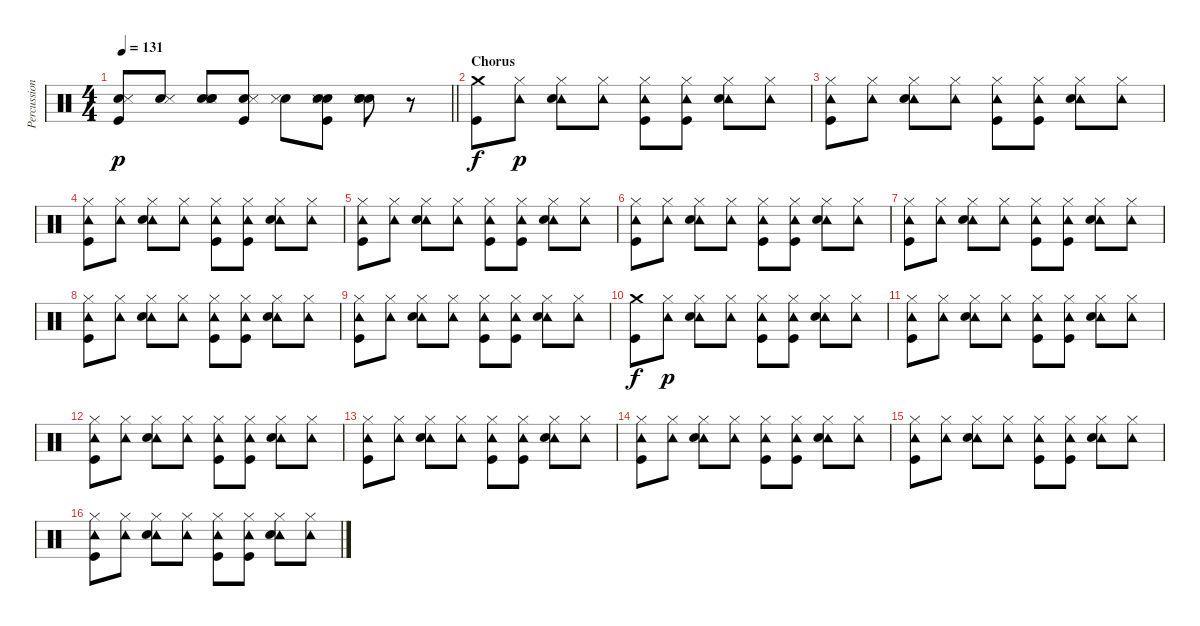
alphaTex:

\track ("Percussion" "Percussion") {instrument percussion}
\staff {score}
\articulation defaults
\ts (4 4)
\tempo 131
\clef neutral
\barLineRight lightlight
\ks c
("Hand Clap (hit)" "Snare (side stick) 3" "Kick (hit)").8{dy p} ("Hand Clap (hit)" "Snare (side stick) 3").8 ("Hand Clap (hit)" "Snare (side stick) 3" "Snare (hit) 2" "Snare (hit) 2").8 ("Hand Clap (hit)" "Snare (side stick) 3" "Kick (hit)").8 ("Hand Clap (hit)" "Snare (side stick) 3").8 ("Hand Clap (hit)" "Snare (side stick) 3" "Snare (hit) 2" "Kick (hit)").8 ("Hand Clap (hit)" "Snare (side stick) 3" "Snare (hit) 2" "Snare (hit) 2").8 r.8 |
\section ("" "Chorus")
("Crash medium (hit)" "Kick (hit)").8{dy f} ("Tambourine (hit)" "Hi-Hat (closed)").8{dy p} ("Tambourine (hit)" "Hi-Hat (closed)" "Snare (hit) 2").8 ("Tambourine (hit)" "Hi-Hat (closed)").8 ("Tambourine (hit)" "Hi-Hat (closed)" "Kick (hit)").8 ("Tambourine (hit)" "Hi-Hat (closed)" "Kick (hit)").8 ("Tambourine (hit)" "Hi-Hat (closed)" "Snare (hit) 2").8 ("Tambourine (hit)" "Hi-Hat (closed)").8 |
("Tambourine (hit)" "Hi-Hat (closed)" "Kick (hit)").8 ("Tambourine (hit)" "Hi-Hat (closed)").8 ("Tambourine (hit)" "Hi-Hat (closed)" "Snare (hit) 2").8 ("Tambourine (hit)" "Hi-Hat (closed)").8 ("Tambourine (hit)" "Hi-Hat (closed)" "Kick (hit)").8 ("Tambourine (hit)" "Hi-Hat (closed)" "Kick (hit)").8 ("Tambourine (hit)" "Hi-Hat (closed)" "Snare (hit) 2").8 ("Tambourine (hit)" "Hi-Hat (closed)").8 |
("Tambourine (hit)" "Hi-Hat (closed)" "Kick (hit)").8 ("Tambourine (hit)" "Hi-Hat (closed)").8 ("Tambourine (hit)" "Hi-Hat (closed)" "Snare (hit) 2").8 ("Tambourine (hit)" "Hi-Hat (closed)").8 ("Tambourine (hit)" "Hi-Hat (closed)" "Kick (hit)").8 ("Tambourine (hit)" "Hi-Hat (closed)" "Kick (hit)").8 ("Tambourine (hit)" "Hi-Hat (closed)" "Snare (hit) 2").8 ("Tambourine (hit)" "Hi-Hat (closed)").8 |
("Tambourine (hit)" "Hi-Hat (closed)" "Kick (hit)").8 ("Tambourine (hit)" "Hi-Hat (closed)").8 ("Tambourine (hit)" "Hi-Hat (closed)" "Snare (hit) 2").8 ("Tambourine (hit)" "Hi-Hat (closed)").8 ("Tambourine (hit)" "Hi-Hat (closed)" "Kick (hit)").8 ("Tambourine (hit)" "Hi-Hat (closed)" "Kick (hit)").8 ("Tambourine (hit)" "Hi-Hat (closed)" "Snare (hit) 2").8 ("Tambourine (hit)" "Hi-Hat (closed)").8 |
("Tambourine (hit)" "Hi-Hat (closed)" "Kick (hit)").8 ("Tambourine (hit)" "Hi-Hat (closed)").8 ("Tambourine (hit)" "Hi-Hat (closed)" "Snare (hit) 2").8 ("Tambourine (hit)" "Hi-Hat (closed)").8 ("Tambourine (hit)" "Hi-Hat (closed)" "Kick (hit)").8 ("Tambourine (hit)" "Hi-Hat (closed)" "Kick (hit)").8 ("Tambourine (hit)" "Hi-Hat (closed)" "Snare (hit) 2").8 ("Tambourine (hit)" "Hi-Hat (closed)").8 |
("Tambourine (hit)" "Hi-Hat (closed)" "Kick (hit)").8 ("Tambourine (hit)" "Hi-Hat (closed)").8 ("Tambourine (hit)" "Hi-Hat (closed)" "Snare (hit) 2").8 ("Tambourine (hit)" "Hi-Hat (closed)").8 ("Tambourine (hit)" "Hi-Hat (closed)" "Kick (hit)").8 ("Tambourine (hit)" "Hi-Hat (closed)" "Kick (hit)").8 ("Tambourine (hit)" "Hi-Hat (closed)" "Snare (hit) 2").8 ("Tambourine (hit)" "Hi-Hat (closed)").8 |
("Tambourine (hit)" "Hi-Hat (closed)" "Kick (hit)").8 ("Tambourine (hit)" "Hi-Hat (closed)").8 ("Tambourine (hit)" "Hi-Hat (closed)" "Snare (hit) 2").8 ("Tambourine (hit)" "Hi-Hat (closed)").8 ("Tambourine (hit)" "Hi-Hat (closed)" "Kick (hit)").8 ("Tambourine (hit)" "Hi-Hat (closed)" "Kick (hit)").8 ("Tambourine (hit)" "Hi-Hat (closed)" "Snare (hit) 2").8 ("Tambourine (hit)" "Hi-Hat (closed)").8 |
("Tambourine (hit)" "Hi-Hat (closed)" "Kick (hit)").8 ("Tambourine (hit)" "Hi-Hat (closed)").8 ("Tambourine (hit)" "Hi-Hat (closed)" "Snare (hit) 2").8 ("Tambourine (hit)" "Hi-Hat (closed)").8 ("Tambourine (hit)" "Hi-Hat (closed)" "Kick (hit)").8 ("Tambourine (hit)" "Hi-Hat (closed)" "Kick (hit)").8 ("Tambourine (hit)" "Hi-Hat (closed)" "Snare (hit) 2").8 ("Tambourine (hit)" "Hi-Hat (closed)").8 |
("Crash medium (hit)" "Kick (hit)").8{dy f} ("Tambourine (hit)" "Hi-Hat (closed)").8{dy p} ("Tambourine (hit)" "Hi-Hat (closed)" "Snare (hit) 2").8 ("Tambourine (hit)" "Hi-Hat (closed)").8 ("Tambourine (hit)" "Hi-Hat (closed)" "Kick (hit)").8 ("Tambourine (hit)" "Hi-Hat (closed)" "Kick (hit)").8 ("Tambourine (hit)" "Hi-Hat (closed)" "Snare (hit) 2").8 ("Tambourine (hit)" "Hi-Hat (closed)").8 |
("Tambourine (hit)" "Hi-Hat (closed)" "Kick (hit)").8 ("Tambourine (hit)" "Hi-Hat (closed)").8 ("Tambourine (hit)" "Hi-Hat (closed)" "Snare (hit) 2").8 ("Tambourine (hit)" "Hi-Hat (closed)").8 ("Tambourine (hit)" "Hi-Hat (closed)" "Kick (hit)").8 ("Tambourine (hit)" "Hi-Hat (closed)" "Kick (hit)").8 ("Tambourine (hit)" "Hi-Hat (closed)" "Snare (hit) 2").8 ("Tambourine (hit)" "Hi-Hat (closed)").8 |
("Tambourine (hit)" "Hi-Hat (closed)" "Kick (hit)").8 ("Tambourine (hit)" "Hi-Hat (closed)").8 ("Tambourine (hit)" "Hi-Hat (closed)" "Snare (hit) 2").8 ("Tambourine (hit)" "Hi-Hat (closed)").8 ("Tambourine (hit)" "Hi-Hat (closed)" "Kick (hit)").8 ("Tambourine (hit)" "Hi-Hat (closed)" "Kick (hit)").8 ("Tambourine (hit)" "Hi-Hat (closed)" "Snare (hit) 2").8 ("Tambourine (hit)" "Hi-Hat (closed)").8 |
("Tambourine (hit)" "Hi-Hat (closed)" "Kick (hit)").8 ("Tambourine (hit)" "Hi-Hat (closed)").8 ("Tambourine (hit)" "Hi-Hat (closed)" "Snare (hit) 2").8 ("Tambourine (hit)" "Hi-Hat (closed)").8 ("Tambourine (hit)" "Hi-Hat (closed)" "Kick (hit)").8 ("Tambourine (hit)" "Hi-Hat (closed)" "Kick (hit)").8 ("Tambourine (hit)" "Hi-Hat (closed)" "Snare (hit) 2").8 ("Tambourine (hit)" "Hi-Hat (closed)").8 |
("Tambourine (hit)" "Hi-Hat (closed)" "Kick (hit)").8 ("Tambourine (hit)" "Hi-Hat (closed)").8 ("Tambourine (hit)" "Hi-Hat (closed)" "Snare (hit) 2").8 ("Tambourine (hit)" "Hi-Hat (closed)").8 ("Tambourine (hit)" "Hi-Hat (closed)" "Kick (hit)").8 ("Tambourine (hit)" "Hi-Hat (closed)" "Kick (hit)").8 ("Tambourine (hit)" "Hi-Hat (closed)" "Snare (hit) 2").8 ("Tambourine (hit)" "Hi-Hat (closed)").8 |
("Tambourine (hit)" "Hi-Hat (closed)" "Kick (hit)").8 ("Tambourine (hit)" "Hi-Hat (closed)").8 ("Tambourine (hit)" "Hi-Hat (closed)" "Snare (hit) 2").8 ("Tambourine (hit)" "Hi-Hat (closed)").8 ("Tambourine (hit)" "Hi-Hat (closed)" "Kick (hit)").8 ("Tambourine (hit)" "Hi-Hat (closed)" "Kick (hit)").8 ("Tambourine (hit)" "Hi-Hat (closed)" "Snare (hit) 2").8 ("Tambourine (hit)" "Hi-Hat (closed)").8 |
("Tambourine (hit)" "Hi-Hat (closed)" "Kick (hit)").8 ("Tambourine (hit)" "Hi-Hat (closed)").8 ("Tambourine (hit)" "Hi-Hat (closed)" "Snare (hit) 2").8 ("Tambourine (hit)" "Hi-Hat (closed)").8 ("Tambourine (hit)" "Hi-Hat (closed)" "Kick (hit)").8 ("Tambourine (hit)" "Hi-Hat (closed)" "Kick (hit)").8 ("Tambourine (hit)" "Hi-Hat (closed)" "Snare (hit) 2").8 ("Tambourine (hit)" "Hi-Hat (closed)").8
